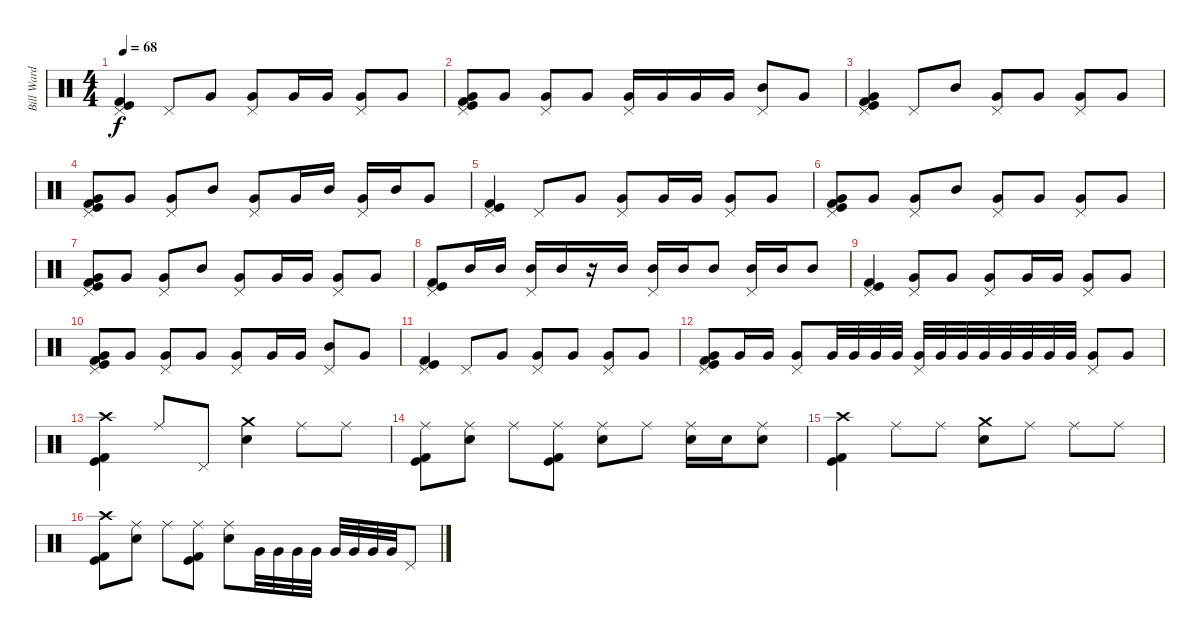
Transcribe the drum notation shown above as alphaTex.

\track ("Bill Ward" "Bill Ward") {instrument percussion}
\staff {score}
\articulation defaults
\ts (4 4)
\tempo 68
\clef neutral
\ks c
("Pedal Hi-Hat (hit)" "Kick (hit) 2" "Kick (hit)").4{dy f} "Pedal Hi-Hat (hit)".8 "Very Low Tom (hit)".8 ("Pedal Hi-Hat (hit)" "Very Low Tom (hit)").8 "Very Low Tom (hit)".16 "Very Low Tom (hit)".16 ("Pedal Hi-Hat (hit)" "Very Low Tom (hit)").8 "Very Low Tom (hit)".8 |
("Pedal Hi-Hat (hit)" "Very Low Tom (hit)" "Kick (hit) 2" "Kick (hit)").8 "Very Low Tom (hit)".8 ("Pedal Hi-Hat (hit)" "Very Low Tom (hit)").8 "Very Low Tom (hit)".8 ("Pedal Hi-Hat (hit)" "Very Low Tom (hit)").16 "Very Low Tom (hit)".16 "Very Low Tom (hit)".16 "Very Low Tom (hit)".16 ("Pedal Hi-Hat (hit)" "Mid Tom (hit)").8 "Very Low Tom (hit)".8 |
("Pedal Hi-Hat (hit)" "Kick (hit) 2" "Kick (hit)" "Very Low Tom (hit)").4 "Pedal Hi-Hat (hit)".8 "Mid Tom (hit)".8 ("Pedal Hi-Hat (hit)" "Very Low Tom (hit)").8 "Very Low Tom (hit)".8 ("Pedal Hi-Hat (hit)" "Very Low Tom (hit)").8 "Very Low Tom (hit)".8 |
("Pedal Hi-Hat (hit)" "Very Low Tom (hit)" "Kick (hit) 2" "Kick (hit)").8 "Very Low Tom (hit)".8 ("Pedal Hi-Hat (hit)" "Very Low Tom (hit)").8 "Mid Tom (hit)".8 ("Pedal Hi-Hat (hit)" "Very Low Tom (hit)").8 "Very Low Tom (hit)".16 "Mid Tom (hit)".16 ("Pedal Hi-Hat (hit)" "Very Low Tom (hit)").16 "Mid Tom (hit)".16 "Very Low Tom (hit)".8 |
("Pedal Hi-Hat (hit)" "Kick (hit) 2" "Kick (hit)").4 "Pedal Hi-Hat (hit)".8 "Very Low Tom (hit)".8 ("Pedal Hi-Hat (hit)" "Very Low Tom (hit)").8 "Very Low Tom (hit)".16 "Very Low Tom (hit)".16 ("Pedal Hi-Hat (hit)" "Very Low Tom (hit)").8 "Very Low Tom (hit)".8 |
("Pedal Hi-Hat (hit)" "Kick (hit) 2" "Kick (hit)" "Very Low Tom (hit)").8 "Very Low Tom (hit)".8 ("Pedal Hi-Hat (hit)" "Very Low Tom (hit)").8 "Mid Tom (hit)".8 ("Pedal Hi-Hat (hit)" "Very Low Tom (hit)").8 "Very Low Tom (hit)".8 ("Pedal Hi-Hat (hit)" "Very Low Tom (hit)").8 "Very Low Tom (hit)".8 |
("Pedal Hi-Hat (hit)" "Kick (hit) 2" "Kick (hit)" "Very Low Tom (hit)").8 "Very Low Tom (hit)".8 ("Pedal Hi-Hat (hit)" "Very Low Tom (hit)").8 "Mid Tom (hit)".8 ("Pedal Hi-Hat (hit)" "Very Low Tom (hit)").8 "Very Low Tom (hit)".16 "Very Low Tom (hit)".16 ("Pedal Hi-Hat (hit)" "Very Low Tom (hit)").8 "Very Low Tom (hit)".8 |
("Pedal Hi-Hat (hit)" "Kick (hit) 2" "Kick (hit)").8 "Mid Tom (hit)".16 "Mid Tom (hit)".16 ("Pedal Hi-Hat (hit)" "Mid Tom (hit)").16 "Mid Tom (hit)".16 r.16 "Mid Tom (hit)".16 ("Pedal Hi-Hat (hit)" "Mid Tom (hit)").16 "Mid Tom (hit)".16 "Mid Tom (hit)".8 ("Pedal Hi-Hat (hit)" "Mid Tom (hit)").16 "Mid Tom (hit)".16 "Mid Tom (hit)".8 |
("Pedal Hi-Hat (hit)" "Kick (hit) 2" "Kick (hit)").4 ("Pedal Hi-Hat (hit)" "Very Low Tom (hit)").8 "Very Low Tom (hit)".8 ("Pedal Hi-Hat (hit)" "Very Low Tom (hit)").8 "Very Low Tom (hit)".16 "Very Low Tom (hit)".16 ("Pedal Hi-Hat (hit)" "Very Low Tom (hit)").8 "Very Low Tom (hit)".8 |
("Pedal Hi-Hat (hit)" "Very Low Tom (hit)" "Kick (hit) 2" "Kick (hit)").8 "Very Low Tom (hit)".8 ("Pedal Hi-Hat (hit)" "Very Low Tom (hit)").8 "Very Low Tom (hit)".8 ("Pedal Hi-Hat (hit)" "Very Low Tom (hit)").8 "Very Low Tom (hit)".16 "Very Low Tom (hit)".16 ("Pedal Hi-Hat (hit)" "Mid Tom (hit)").8 "Very Low Tom (hit)".8 |
("Pedal Hi-Hat (hit)" "Kick (hit) 2" "Kick (hit)").4 "Pedal Hi-Hat (hit)".8 "Very Low Tom (hit)".8 ("Pedal Hi-Hat (hit)" "Very Low Tom (hit)").8 "Very Low Tom (hit)".8 ("Pedal Hi-Hat (hit)" "Very Low Tom (hit)").8 "Very Low Tom (hit)".8 |
("Pedal Hi-Hat (hit)" "Kick (hit) 2" "Kick (hit)" "Very Low Tom (hit)").8 "Very Low Tom (hit)".16 "Very Low Tom (hit)".16 ("Pedal Hi-Hat (hit)" "Very Low Tom (hit)").8 "Very Low Tom (hit)".32 "Very Low Tom (hit)".32 "Very Low Tom (hit)".32 "Very Low Tom (hit)".32 ("Pedal Hi-Hat (hit)" "Very Low Tom (hit)").32 "Very Low Tom (hit)".32 "Very Low Tom (hit)".32 "Very Low Tom (hit)".32 "Very Low Tom (hit)".32 "Very Low Tom (hit)".32 "Very Low Tom (hit)".32 "Very Low Tom (hit)".32 ("Pedal Hi-Hat (hit)" "Very Low Tom (hit)").8 "Very Low Tom (hit)".8 |
("Crash high (hit)" "Kick (hit) 2" "Kick (hit)").4 "Ride (middle)".8 "Pedal Hi-Hat (hit)".8 ("Crash medium (hit)" "Snare (hit) 2").4 "Ride (middle)".8 "Ride (middle)".8 |
("Ride (middle)" "Kick (hit) 2" "Kick (hit)").8 ("Ride (middle)" "Snare (hit) 2").8 "Ride (middle)".8 ("Ride (middle)" "Kick (hit) 2" "Kick (hit)").8 ("Ride (middle)" "Snare (hit) 2").8 "Ride (middle)".8 ("Ride (middle)" "Snare (hit) 2").16 "Snare (hit) 2".16 ("Ride (middle)" "Snare (hit) 2").8 |
("Crash high (hit)" "Kick (hit) 2" "Kick (hit)").4 "Ride (middle)".8 "Ride (middle)".8 ("Crash medium (hit)" "Snare (hit) 2").8 "Ride (middle)".8 "Ride (middle)".8 "Ride (middle)".8 |
("Crash high (hit)" "Kick (hit) 2" "Kick (hit)").8 ("Ride (middle)" "Snare (hit) 2").8 "Ride (middle)".8 ("Ride (middle)" "Kick (hit) 2" "Kick (hit)").8 ("Ride (middle)" "Snare (hit) 2").8 "Very Low Tom (hit)".32 "Very Low Tom (hit)".32 "Very Low Tom (hit)".32 "Very Low Tom (hit)".32 "Very Low Tom (hit)".32 "Very Low Tom (hit)".32 "Very Low Tom (hit)".32 "Very Low Tom (hit)".32 "Pedal Hi-Hat (hit)".8
